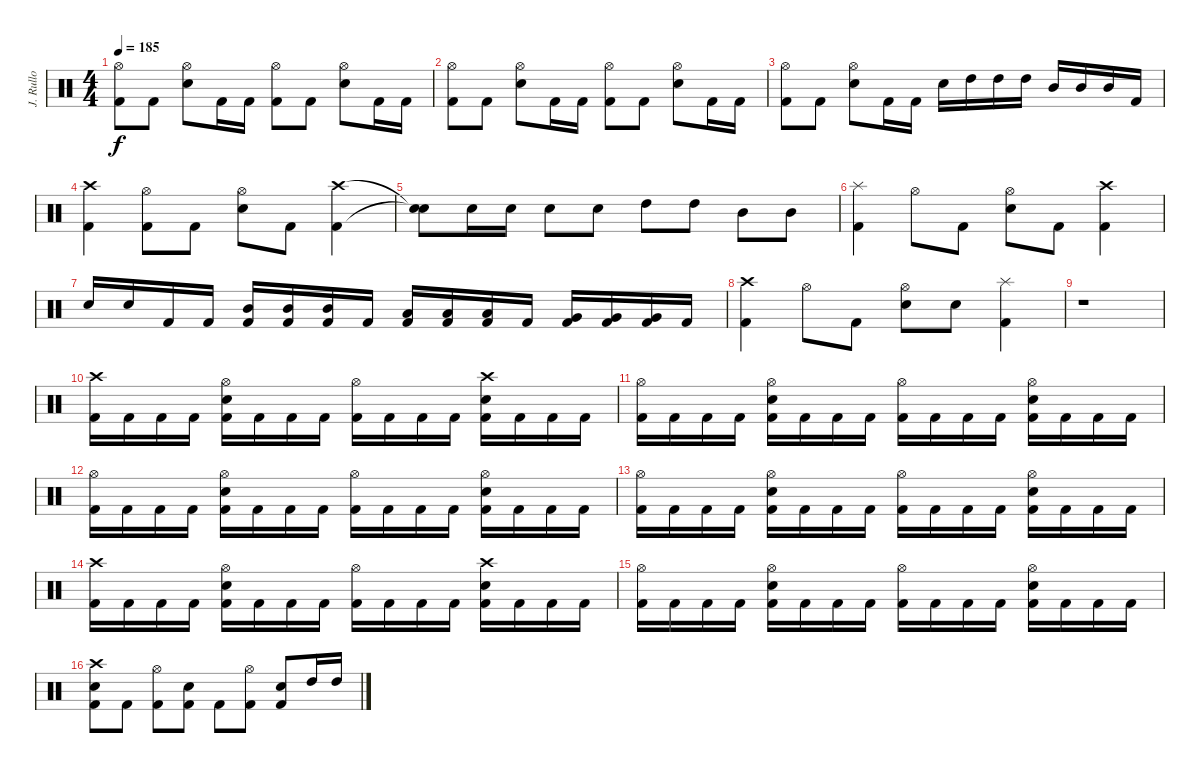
\track ("J. Rullo" "J. Rullo") {instrument percussion}
\staff {score}
\articulation defaults
\ts (4 4)
\tempo 185
\clef neutral
\ks c
("Hi-Hat (open)" "Kick (hit) 2").8{dy f} "Kick (hit) 2".8 ("Hi-Hat (open)" "Snare (hit) 2").8 "Kick (hit) 2".16 "Kick (hit) 2".16 ("Hi-Hat (open)" "Kick (hit) 2").8 "Kick (hit) 2".8 ("Hi-Hat (open)" "Snare (hit) 2").8 "Kick (hit) 2".16 "Kick (hit) 2".16 |
("Hi-Hat (open)" "Kick (hit) 2").8 "Kick (hit) 2".8 ("Hi-Hat (open)" "Snare (hit) 2").8 "Kick (hit) 2".16 "Kick (hit) 2".16 ("Hi-Hat (open)" "Kick (hit) 2").8 "Kick (hit) 2".8 ("Hi-Hat (open)" "Snare (hit) 2").8 "Kick (hit) 2".16 "Kick (hit) 2".16 |
("Hi-Hat (open)" "Kick (hit) 2").8 "Kick (hit) 2".8 ("Hi-Hat (open)" "Snare (hit) 2").8 "Kick (hit) 2".16 "Kick (hit) 2".16 "Snare (hit) 2".16 "High Tom (hit)".16 "High Tom (hit)".16 "High Tom (hit)".16 "Mid Tom (hit)".16 "Mid Tom (hit)".16 "Mid Tom (hit)".16 "Kick (hit) 2".16 |
("Crash high (hit)" "Kick (hit) 2").4 ("Hi-Hat (open)" "Kick (hit) 2").8 "Kick (hit) 2".8 ("Hi-Hat (open)" "Snare (hit) 2").8 "Kick (hit) 2".8 ("Crash high (hit)" "Kick (hit) 2").4 |
("Snare (hit)"{t} "Snare (hit)"{t}).8 "Snare (hit) 2".16 "Snare (hit) 2".16 "Snare (hit) 2".8 "Snare (hit) 2".8 "High Tom (hit)".8 "High Tom (hit)".8 "Mid Tom (hit)".8 "Mid Tom (hit)".8 |
("Splash (hit)" "Kick (hit) 2").4 "Hi-Hat (open)".8 "Kick (hit) 2".8 ("Hi-Hat (open)" "Snare (hit) 2").8 "Kick (hit) 2".8 ("Crash high (hit)" "Kick (hit) 2").4 |
"Snare (hit) 2".16 "Snare (hit) 2".16 "Kick (hit) 2".16 "Kick (hit) 2".16 ("Mid Tom (hit)" "Kick (hit) 2").16 ("Mid Tom (hit)" "Kick (hit) 2").16 ("Mid Tom (hit)" "Kick (hit) 2").16 "Kick (hit) 2".16 ("Low Tom (hit)" "Kick (hit) 2").16 ("Low Tom (hit)" "Kick (hit) 2").16 ("Low Tom (hit)" "Kick (hit) 2").16 "Kick (hit) 2".16 ("Very Low Tom (hit)" "Kick (hit) 2").16 ("Very Low Tom (hit)" "Kick (hit) 2").16 ("Very Low Tom (hit)" "Kick (hit) 2").16 "Kick (hit) 2".16 |
("Crash high (hit)" "Kick (hit) 2").4 "Hi-Hat (open)".8 "Kick (hit) 2".8 ("Hi-Hat (open)" "Snare (hit) 2").8 "Snare (hit) 2".8 ("Splash (hit)" "Kick (hit) 2").4 |
r.1 |
("Crash high (hit)" "Kick (hit) 2").16 "Kick (hit) 2".16 "Kick (hit) 2".16 "Kick (hit) 2".16 ("Hi-Hat (open)" "Snare (hit) 2" "Kick (hit) 2").16 "Kick (hit) 2".16 "Kick (hit) 2".16 "Kick (hit) 2".16 ("Hi-Hat (open)" "Kick (hit) 2").16 "Kick (hit) 2".16 "Kick (hit) 2".16 "Kick (hit) 2".16 ("Crash high (hit)" "Snare (hit) 2" "Kick (hit) 2").16 "Kick (hit) 2".16 "Kick (hit) 2".16 "Kick (hit) 2".16 |
("Hi-Hat (open)" "Kick (hit) 2").16 "Kick (hit) 2".16 "Kick (hit) 2".16 "Kick (hit) 2".16 ("Hi-Hat (open)" "Snare (hit) 2" "Kick (hit) 2").16 "Kick (hit) 2".16 "Kick (hit) 2".16 "Kick (hit) 2".16 ("Hi-Hat (open)" "Kick (hit) 2").16 "Kick (hit) 2".16 "Kick (hit) 2".16 "Kick (hit) 2".16 ("Hi-Hat (open)" "Snare (hit) 2" "Kick (hit) 2").16 "Kick (hit) 2".16 "Kick (hit) 2".16 "Kick (hit) 2".16 |
("Hi-Hat (open)" "Kick (hit) 2").16 "Kick (hit) 2".16 "Kick (hit) 2".16 "Kick (hit) 2".16 ("Hi-Hat (open)" "Snare (hit) 2" "Kick (hit) 2").16 "Kick (hit) 2".16 "Kick (hit) 2".16 "Kick (hit) 2".16 ("Hi-Hat (open)" "Kick (hit) 2").16 "Kick (hit) 2".16 "Kick (hit) 2".16 "Kick (hit) 2".16 ("Hi-Hat (open)" "Snare (hit) 2" "Kick (hit) 2").16 "Kick (hit) 2".16 "Kick (hit) 2".16 "Kick (hit) 2".16 |
("Hi-Hat (open)" "Kick (hit) 2").16 "Kick (hit) 2".16 "Kick (hit) 2".16 "Kick (hit) 2".16 ("Hi-Hat (open)" "Snare (hit) 2" "Kick (hit) 2").16 "Kick (hit) 2".16 "Kick (hit) 2".16 "Kick (hit) 2".16 ("Hi-Hat (open)" "Kick (hit) 2").16 "Kick (hit) 2".16 "Kick (hit) 2".16 "Kick (hit) 2".16 ("Hi-Hat (open)" "Snare (hit) 2" "Kick (hit) 2").16 "Kick (hit) 2".16 "Kick (hit) 2".16 "Kick (hit) 2".16 |
("Crash high (hit)" "Kick (hit) 2").16 "Kick (hit) 2".16 "Kick (hit) 2".16 "Kick (hit) 2".16 ("Hi-Hat (open)" "Snare (hit) 2" "Kick (hit) 2").16 "Kick (hit) 2".16 "Kick (hit) 2".16 "Kick (hit) 2".16 ("Hi-Hat (open)" "Kick (hit) 2").16 "Kick (hit) 2".16 "Kick (hit) 2".16 "Kick (hit) 2".16 ("Crash high (hit)" "Snare (hit) 2" "Kick (hit) 2").16 "Kick (hit) 2".16 "Kick (hit) 2".16 "Kick (hit) 2".16 |
("Hi-Hat (open)" "Kick (hit) 2").16 "Kick (hit) 2".16 "Kick (hit) 2".16 "Kick (hit) 2".16 ("Hi-Hat (open)" "Snare (hit) 2" "Kick (hit) 2").16 "Kick (hit) 2".16 "Kick (hit) 2".16 "Kick (hit) 2".16 ("Hi-Hat (open)" "Kick (hit) 2").16 "Kick (hit) 2".16 "Kick (hit) 2".16 "Kick (hit) 2".16 ("Hi-Hat (open)" "Snare (hit) 2" "Kick (hit) 2").16 "Kick (hit) 2".16 "Kick (hit) 2".16 "Kick (hit) 2".16 |
("Crash high (hit)" "Snare (hit) 2" "Kick (hit) 2").8 "Kick (hit) 2".8 ("Hi-Hat (open)" "Kick (hit) 2").8 ("Snare (hit) 2" "Kick (hit) 2").8 "Kick (hit) 2".8 ("Hi-Hat (open)" "Kick (hit) 2").8 ("Snare (hit) 2" "Kick (hit) 2").8 "High Tom (hit)".16 "High Tom (hit)".16
